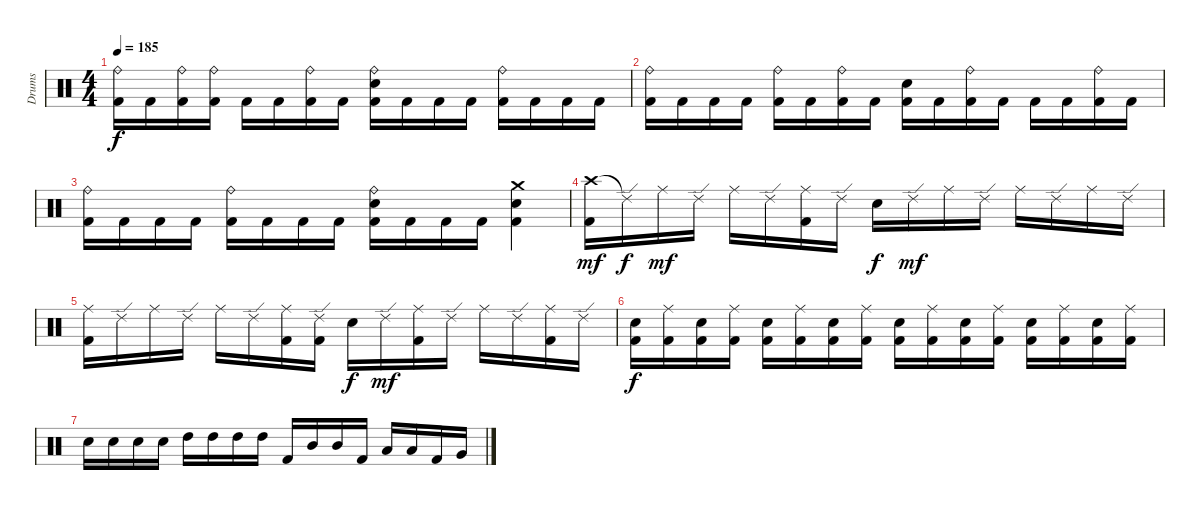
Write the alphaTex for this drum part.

\track ("Drums" "Drums") {instrument percussion}
\staff {score}
\articulation defaults
\ts (4 4)
\tempo 185
\clef neutral
\ks c
("Ride (bell)" "Kick (hit) 2").16{dy f} "Kick (hit) 2".16 ("Ride (bell)" "Kick (hit) 2").16 ("Ride (bell)" "Kick (hit) 2").16 "Kick (hit) 2".16 "Kick (hit) 2".16 ("Ride (bell)" "Kick (hit) 2").16 "Kick (hit) 2".16 ("Ride (bell)" "Electric Snare (hit)" "Kick (hit) 2").16 "Kick (hit) 2".16 "Kick (hit) 2".16 "Kick (hit) 2".16 ("Ride (bell)" "Kick (hit) 2").16 "Kick (hit) 2".16 "Kick (hit) 2".16 "Kick (hit) 2".16 |
("Ride (bell)" "Kick (hit) 2").16 "Kick (hit) 2".16 "Kick (hit) 2".16 "Kick (hit) 2".16 ("Ride (bell)" "Kick (hit) 2").16 "Kick (hit) 2".16 ("Ride (bell)" "Kick (hit) 2").16 "Kick (hit) 2".16 ("Electric Snare (hit)" "Kick (hit) 2").16 "Kick (hit) 2".16 ("Ride (bell)" "Kick (hit) 2").16 "Kick (hit) 2".16 "Kick (hit) 2".16 "Kick (hit) 2".16 ("Ride (bell)" "Kick (hit) 2").16 "Kick (hit) 2".16 |
("Ride (bell)" "Kick (hit) 2").16 "Kick (hit) 2".16 "Kick (hit) 2".16 "Kick (hit) 2".16 ("Ride (bell)" "Kick (hit) 2").16 "Kick (hit) 2".16 "Kick (hit) 2".16 "Kick (hit) 2".16 ("Ride (bell)" "Electric Snare (hit)" "Kick (hit) 2").16 "Kick (hit) 2".16 "Kick (hit) 2".16 "Kick (hit) 2".16 ("Crash medium (hit)" "Electric Snare (hit)" "Kick (hit) 2").4 |
("Crash high (hit)" "Kick (hit) 2").16{dy mf} "Ride (edge) 2"{t}.16{dy f} "Ride (middle)".16{dy mf} "Ride (edge) 2".16 "Ride (middle)".16 "Ride (edge) 2".16 ("Ride (middle)" "Kick (hit) 2").16 "Ride (edge) 2".16 "Electric Snare (hit)".16{dy f} "Ride (edge) 2".16{dy mf} "Ride (middle)".16 "Ride (edge) 2".16 "Ride (middle)".16 "Ride (edge) 2".16 "Ride (middle)".16 "Ride (edge) 2".16 |
("Ride (middle)" "Kick (hit) 2").16 "Ride (edge) 2".16 "Ride (middle)".16 "Ride (edge) 2".16 "Ride (middle)".16 "Ride (edge) 2".16 ("Ride (middle)" "Kick (hit) 2").16 ("Ride (edge) 2" "Kick (hit) 2").16 "Electric Snare (hit)".16{dy f} "Ride (edge) 2".16{dy mf} ("Ride (middle)" "Kick (hit) 2").16 "Ride (edge) 2".16 "Ride (middle)".16 "Ride (edge) 2".16 ("Ride (middle)" "Kick (hit) 2").16 "Ride (edge) 2".16 |
("Electric Snare (hit)" "Kick (hit) 2").16{dy f} ("Ride (middle)" "Kick (hit) 2").16 ("Electric Snare (hit)" "Kick (hit) 2").16 ("Ride (middle)" "Kick (hit) 2").16 ("Electric Snare (hit)" "Kick (hit) 2").16 ("Ride (middle)" "Kick (hit) 2").16 ("Electric Snare (hit)" "Kick (hit) 2").16 ("Ride (middle)" "Kick (hit) 2").16 ("Electric Snare (hit)" "Kick (hit) 2").16 ("Ride (middle)" "Kick (hit) 2").16 ("Electric Snare (hit)" "Kick (hit) 2").16 ("Ride (middle)" "Kick (hit) 2").16 ("Electric Snare (hit)" "Kick (hit) 2").16 ("Ride (middle)" "Kick (hit) 2").16 ("Electric Snare (hit)" "Kick (hit) 2").16 ("Ride (middle)" "Kick (hit) 2").16 |
"Electric Snare (hit)".16 "Electric Snare (hit)".16 "Electric Snare (hit)".16 "Electric Snare (hit)".16 "High Tom (hit)".16 "High Tom (hit)".16 "High Tom (hit)".16 "High Tom (hit)".16 "Kick (hit) 2".16 "Mid Tom (hit)".16 "Mid Tom (hit)".16 "Kick (hit) 2".16 "Low Tom (hit)".16 "Low Tom (hit)".16 "Kick (hit) 2".16 "Very Low Tom (hit)".16
